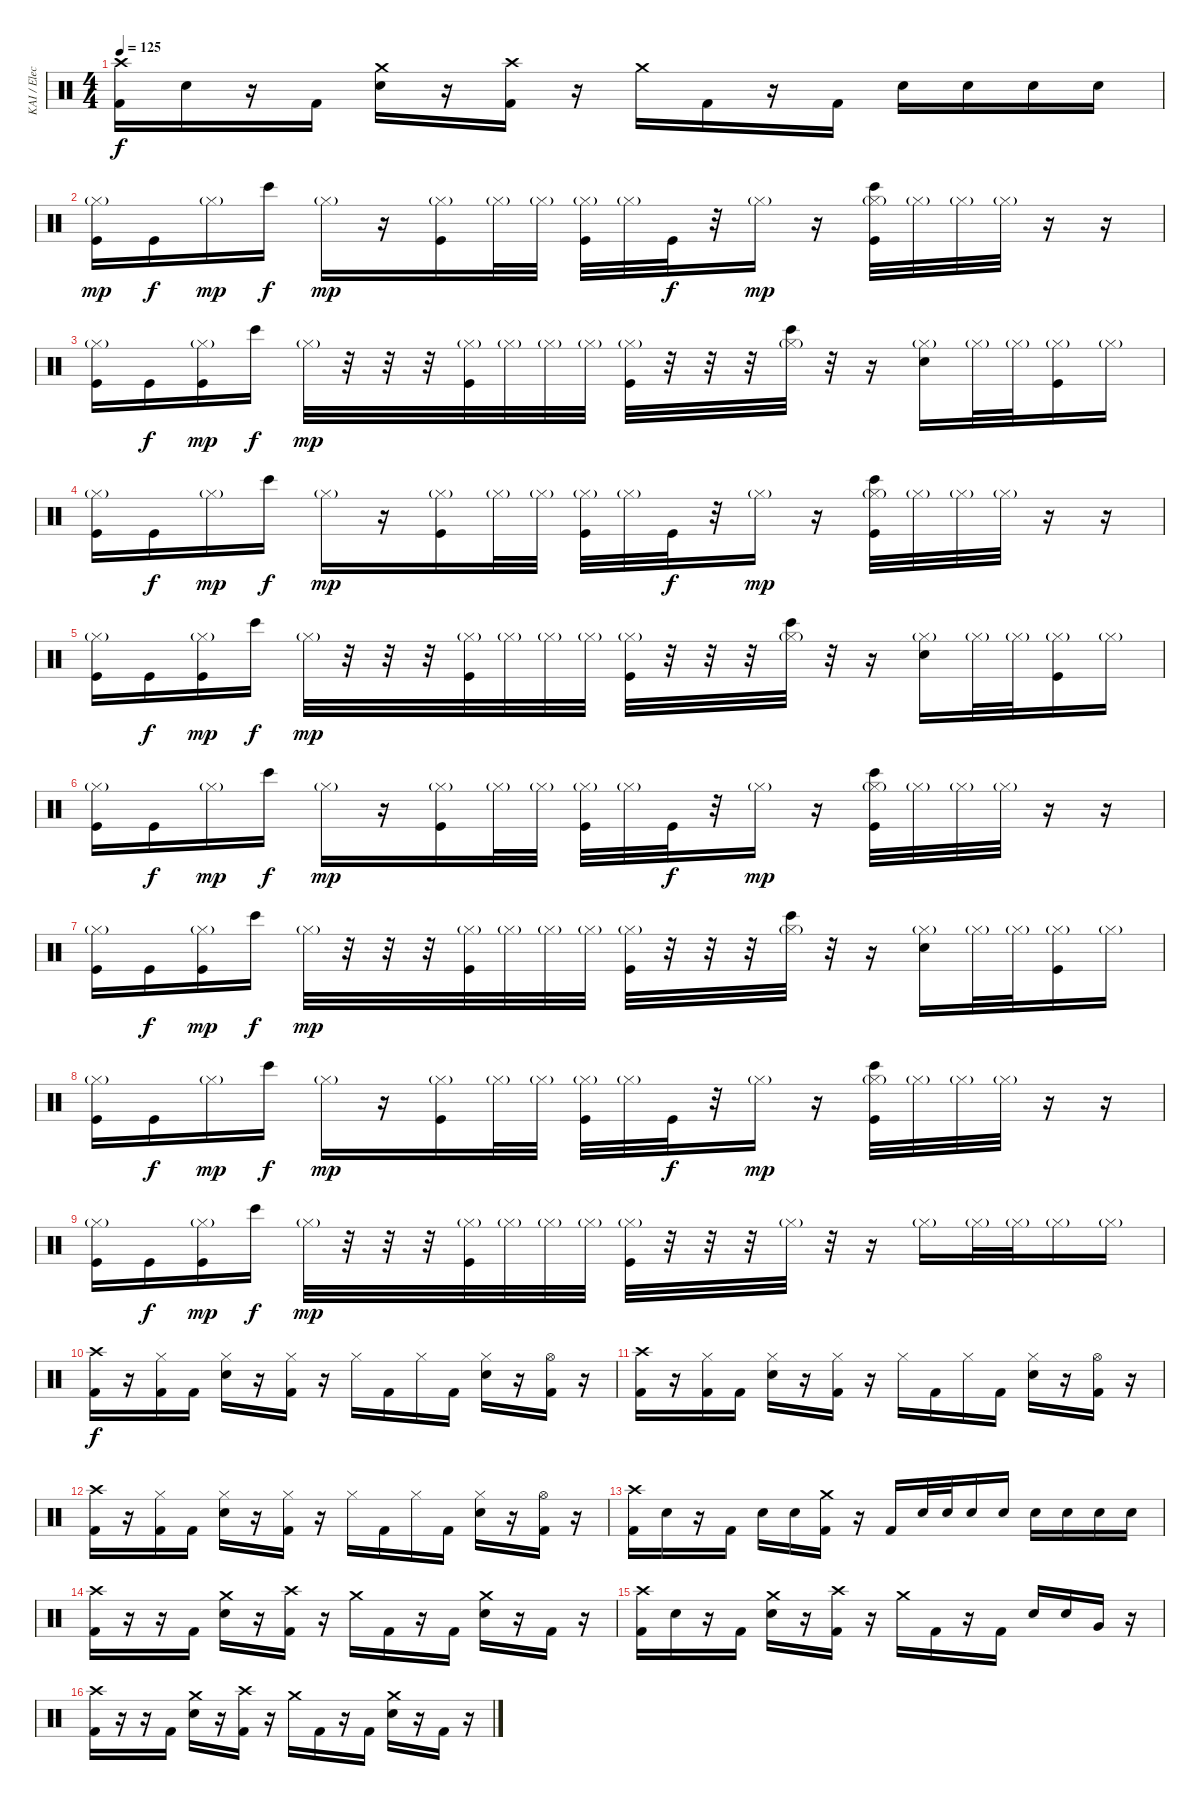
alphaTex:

\track ("KAI / Elect. Drums" "KAI / Elec") {instrument percussion}
\staff {score}
\articulation defaults
\ts (4 4)
\tempo 125
\clef neutral
\ks c
("Crash high (hit)" "Kick (hit) 2").16{dy f} "Electric Snare (hit)".16 r.16 "Kick (hit) 2".16 ("Crash medium (hit)" "Electric Snare (hit)").16 r.16 ("Crash high (hit)" "Kick (hit) 2").16 r.16 "Crash medium (hit)".16 "Kick (hit) 2".16 r.16 "Kick (hit) 2".16 "Electric Snare (hit)".16 "Electric Snare (hit)".16 "Electric Snare (hit)".16 "Electric Snare (hit)".16 |
("Hi-Hat (closed)"{g} "Kick (hit)").16{dy mp} "Kick (hit)".16{dy f} "Hi-Hat (closed)"{g}.16{dy mp} "Bongo High (hit)".16{dy f} "Hi-Hat (closed)"{g}.16{dy mp} r.16 ("Hi-Hat (closed)"{g} "Kick (hit)").16 "Hi-Hat (closed)"{g}.32 "Hi-Hat (closed)"{g}.32 ("Hi-Hat (closed)"{g} "Kick (hit)").32 "Hi-Hat (closed)"{g}.32 "Kick (hit)".32{dy f} r.32 "Hi-Hat (closed)"{g}.16{dy mp} r.16 ("Bongo High (hit)" "Hi-Hat (closed)"{g} "Kick (hit)").32 "Hi-Hat (closed)"{g}.32 "Hi-Hat (closed)"{g}.32 "Hi-Hat (closed)"{g}.32 r.16 r.16 |
("Hi-Hat (closed)"{g} "Kick (hit)").16 "Kick (hit)".16{dy f} ("Hi-Hat (closed)"{g} "Kick (hit)").16{dy mp} "Bongo High (hit)".16{dy f} "Hi-Hat (closed)"{g}.32{dy mp} r.32 r.32 r.32 ("Hi-Hat (closed)"{g} "Kick (hit)").32 "Hi-Hat (closed)"{g}.32 "Hi-Hat (closed)"{g}.32 "Hi-Hat (closed)"{g}.32 ("Hi-Hat (closed)"{g} "Kick (hit)").32 r.32 r.32 r.32 ("Bongo High (hit)" "Hi-Hat (closed)"{g}).32 r.32 r.16 ("Hand Clap (hit)" "Hi-Hat (closed)"{g}).16 "Hi-Hat (closed)"{g}.32 "Hi-Hat (closed)"{g}.32 ("Hi-Hat (closed)"{g} "Kick (hit)").16 "Hi-Hat (closed)"{g}.16 |
("Hi-Hat (closed)"{g} "Kick (hit)").16 "Kick (hit)".16{dy f} "Hi-Hat (closed)"{g}.16{dy mp} "Bongo High (hit)".16{dy f} "Hi-Hat (closed)"{g}.16{dy mp} r.16 ("Hi-Hat (closed)"{g} "Kick (hit)").16 "Hi-Hat (closed)"{g}.32 "Hi-Hat (closed)"{g}.32 ("Hi-Hat (closed)"{g} "Kick (hit)").32 "Hi-Hat (closed)"{g}.32 "Kick (hit)".32{dy f} r.32 "Hi-Hat (closed)"{g}.16{dy mp} r.16 ("Bongo High (hit)" "Hi-Hat (closed)"{g} "Kick (hit)").32 "Hi-Hat (closed)"{g}.32 "Hi-Hat (closed)"{g}.32 "Hi-Hat (closed)"{g}.32 r.16 r.16 |
("Hi-Hat (closed)"{g} "Kick (hit)").16 "Kick (hit)".16{dy f} ("Hi-Hat (closed)"{g} "Kick (hit)").16{dy mp} "Bongo High (hit)".16{dy f} "Hi-Hat (closed)"{g}.32{dy mp} r.32 r.32 r.32 ("Hi-Hat (closed)"{g} "Kick (hit)").32 "Hi-Hat (closed)"{g}.32 "Hi-Hat (closed)"{g}.32 "Hi-Hat (closed)"{g}.32 ("Hi-Hat (closed)"{g} "Kick (hit)").32 r.32 r.32 r.32 ("Bongo High (hit)" "Hi-Hat (closed)"{g}).32 r.32 r.16 ("Hand Clap (hit)" "Hi-Hat (closed)"{g}).16 "Hi-Hat (closed)"{g}.32 "Hi-Hat (closed)"{g}.32 ("Hi-Hat (closed)"{g} "Kick (hit)").16 "Hi-Hat (closed)"{g}.16 |
("Hi-Hat (closed)"{g} "Kick (hit)").16 "Kick (hit)".16{dy f} "Hi-Hat (closed)"{g}.16{dy mp} "Bongo High (hit)".16{dy f} "Hi-Hat (closed)"{g}.16{dy mp} r.16 ("Hi-Hat (closed)"{g} "Kick (hit)").16 "Hi-Hat (closed)"{g}.32 "Hi-Hat (closed)"{g}.32 ("Hi-Hat (closed)"{g} "Kick (hit)").32 "Hi-Hat (closed)"{g}.32 "Kick (hit)".32{dy f} r.32 "Hi-Hat (closed)"{g}.16{dy mp} r.16 ("Bongo High (hit)" "Hi-Hat (closed)"{g} "Kick (hit)").32 "Hi-Hat (closed)"{g}.32 "Hi-Hat (closed)"{g}.32 "Hi-Hat (closed)"{g}.32 r.16 r.16 |
("Hi-Hat (closed)"{g} "Kick (hit)").16 "Kick (hit)".16{dy f} ("Hi-Hat (closed)"{g} "Kick (hit)").16{dy mp} "Bongo High (hit)".16{dy f} "Hi-Hat (closed)"{g}.32{dy mp} r.32 r.32 r.32 ("Hi-Hat (closed)"{g} "Kick (hit)").32 "Hi-Hat (closed)"{g}.32 "Hi-Hat (closed)"{g}.32 "Hi-Hat (closed)"{g}.32 ("Hi-Hat (closed)"{g} "Kick (hit)").32 r.32 r.32 r.32 ("Bongo High (hit)" "Hi-Hat (closed)"{g}).32 r.32 r.16 ("Hand Clap (hit)" "Hi-Hat (closed)"{g}).16 "Hi-Hat (closed)"{g}.32 "Hi-Hat (closed)"{g}.32 ("Hi-Hat (closed)"{g} "Kick (hit)").16 "Hi-Hat (closed)"{g}.16 |
("Hi-Hat (closed)"{g} "Kick (hit)").16 "Kick (hit)".16{dy f} "Hi-Hat (closed)"{g}.16{dy mp} "Bongo High (hit)".16{dy f} "Hi-Hat (closed)"{g}.16{dy mp} r.16 ("Hi-Hat (closed)"{g} "Kick (hit)").16 "Hi-Hat (closed)"{g}.32 "Hi-Hat (closed)"{g}.32 ("Hi-Hat (closed)"{g} "Kick (hit)").32 "Hi-Hat (closed)"{g}.32 "Kick (hit)".32{dy f} r.32 "Hi-Hat (closed)"{g}.16{dy mp} r.16 ("Bongo High (hit)" "Hi-Hat (closed)"{g} "Kick (hit)").32 "Hi-Hat (closed)"{g}.32 "Hi-Hat (closed)"{g}.32 "Hi-Hat (closed)"{g}.32 r.16 r.16 |
("Hi-Hat (closed)"{g} "Kick (hit)").16 "Kick (hit)".16{dy f} ("Hi-Hat (closed)"{g} "Kick (hit)").16{dy mp} "Bongo High (hit)".16{dy f} "Hi-Hat (closed)"{g}.32{dy mp} r.32 r.32 r.32 ("Hi-Hat (closed)"{g} "Kick (hit)").32 "Hi-Hat (closed)"{g}.32 "Hi-Hat (closed)"{g}.32 "Hi-Hat (closed)"{g}.32 ("Hi-Hat (closed)"{g} "Kick (hit)").32 r.32 r.32 r.32 "Hi-Hat (closed)"{g}.32 r.32 r.16 "Hi-Hat (closed)"{g}.16 "Hi-Hat (closed)"{g}.32 "Hi-Hat (closed)"{g}.32 "Hi-Hat (closed)"{g}.16 "Hi-Hat (closed)"{g}.16 |
("Crash high (hit)" "Kick (hit) 2").16{dy f} r.16 ("Hi-Hat (closed)" "Kick (hit) 2").16 "Kick (hit) 2".16 ("Hi-Hat (closed)" "Electric Snare (hit)").16 r.16 ("Hi-Hat (closed)" "Kick (hit) 2").16 r.16 "Hi-Hat (closed)".16 "Kick (hit) 2".16 "Hi-Hat (closed)".16 "Kick (hit) 2".16 ("Hi-Hat (closed)" "Electric Snare (hit)").16 r.16 ("Hi-Hat (open)" "Kick (hit) 2").16 r.16 |
("Crash high (hit)" "Kick (hit) 2").16 r.16 ("Hi-Hat (closed)" "Kick (hit) 2").16 "Kick (hit) 2".16 ("Hi-Hat (closed)" "Electric Snare (hit)").16 r.16 ("Hi-Hat (closed)" "Kick (hit) 2").16 r.16 "Hi-Hat (closed)".16 "Kick (hit) 2".16 "Hi-Hat (closed)".16 "Kick (hit) 2".16 ("Hi-Hat (closed)" "Electric Snare (hit)").16 r.16 ("Hi-Hat (open)" "Kick (hit) 2").16 r.16 |
("Crash high (hit)" "Kick (hit) 2").16 r.16 ("Hi-Hat (closed)" "Kick (hit) 2").16 "Kick (hit) 2".16 ("Hi-Hat (closed)" "Electric Snare (hit)").16 r.16 ("Hi-Hat (closed)" "Kick (hit) 2").16 r.16 "Hi-Hat (closed)".16 "Kick (hit) 2".16 "Hi-Hat (closed)".16 "Kick (hit) 2".16 ("Hi-Hat (closed)" "Electric Snare (hit)").16 r.16 ("Hi-Hat (open)" "Kick (hit) 2").16 r.16 |
("Crash high (hit)" "Kick (hit) 2").16 "Electric Snare (hit)".16 r.16 "Kick (hit) 2".16 "Electric Snare (hit)".16 "Electric Snare (hit)".16 ("Crash medium (hit)" "Kick (hit) 2").16 r.16 "Kick (hit) 2".16 "Electric Snare (hit)".32 "Electric Snare (hit)".32 "Electric Snare (hit)".16 "Electric Snare (hit)".16 "Electric Snare (hit)".16 "Electric Snare (hit)".16 "Electric Snare (hit)".16 "Electric Snare (hit)".16 |
("Crash high (hit)" "Kick (hit) 2").16 r.16 r.16 "Kick (hit) 2".16 ("Crash medium (hit)" "Electric Snare (hit)").16 r.16 ("Crash high (hit)" "Kick (hit) 2").16 r.16 "Crash medium (hit)".16 "Kick (hit) 2".16 r.16 "Kick (hit) 2".16 ("Crash medium (hit)" "Electric Snare (hit)").16 r.16 "Kick (hit) 2".16 r.16 |
("Crash high (hit)" "Kick (hit) 2").16 "Electric Snare (hit)".16 r.16 "Kick (hit) 2".16 ("Crash medium (hit)" "Electric Snare (hit)").16 r.16 ("Crash high (hit)" "Kick (hit) 2").16 r.16 "Crash medium (hit)".16 "Kick (hit) 2".16 r.16 "Kick (hit) 2".16 "Electric Snare (hit)".16 "Electric Snare (hit)".16 "Very Low Tom (hit)".16 r.16 |
("Crash high (hit)" "Kick (hit) 2").16 r.16 r.16 "Kick (hit) 2".16 ("Crash medium (hit)" "Electric Snare (hit)").16 r.16 ("Crash high (hit)" "Kick (hit) 2").16 r.16 "Crash medium (hit)".16 "Kick (hit) 2".16 r.16 "Kick (hit) 2".16 ("Crash medium (hit)" "Electric Snare (hit)").16 r.16 "Kick (hit) 2".16 r.16
